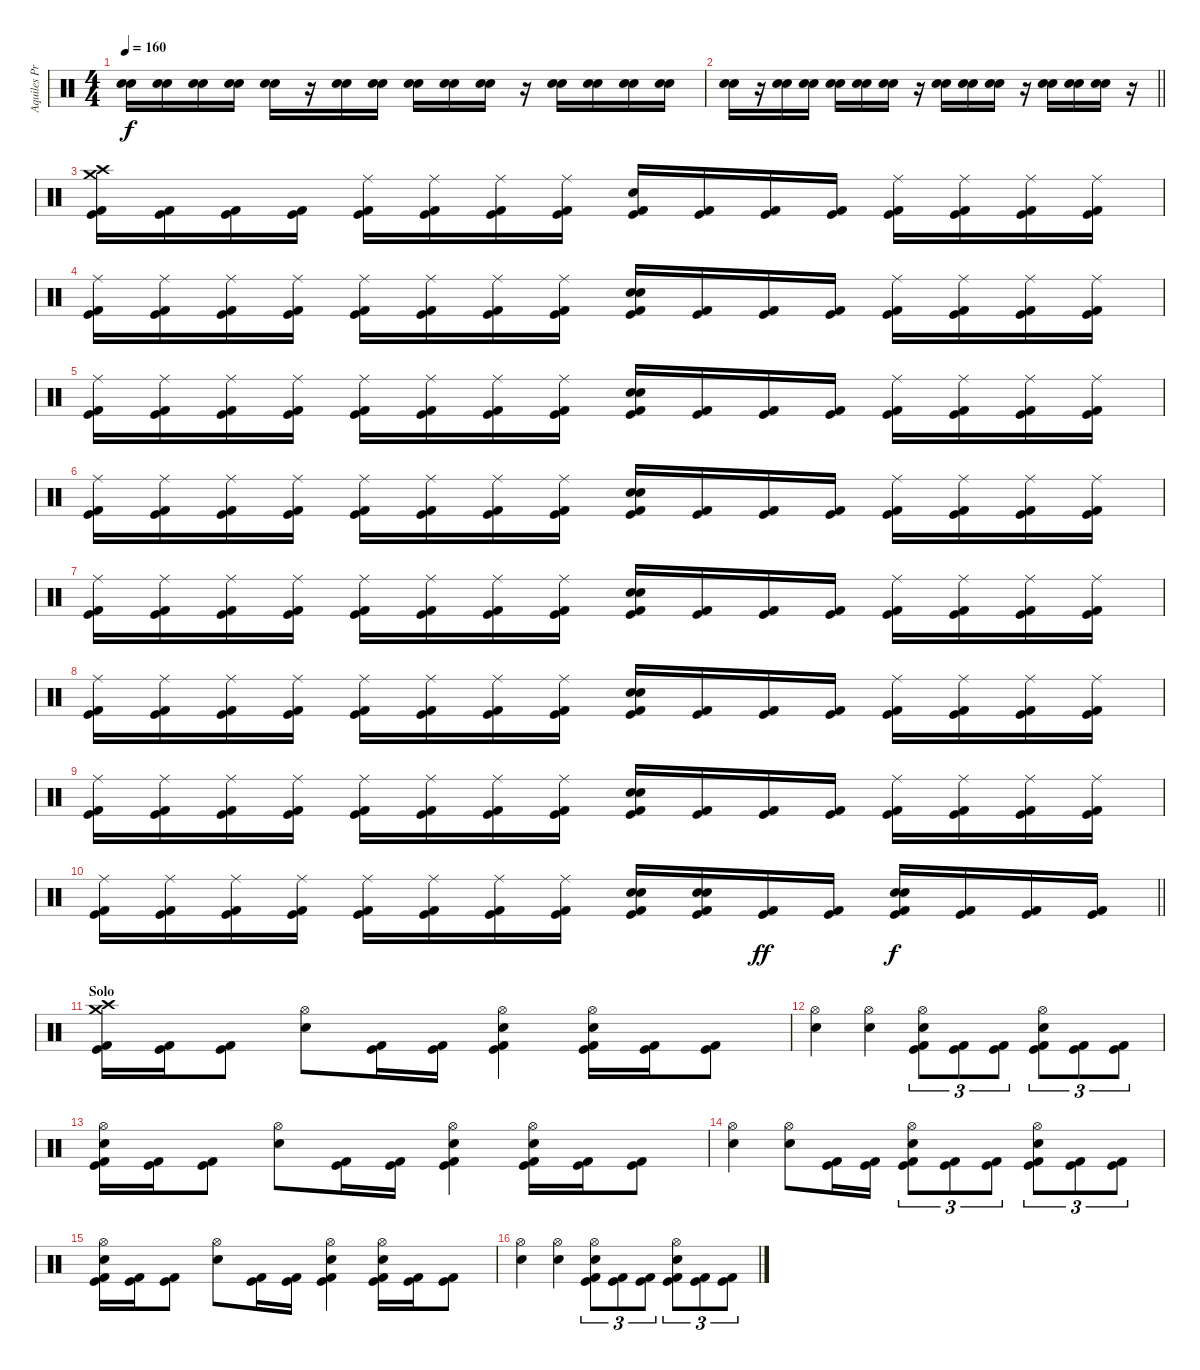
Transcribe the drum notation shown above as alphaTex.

\track ("Aquiles Priester" "Aquiles Pr") {instrument percussion}
\staff {score}
\articulation defaults
\ts (4 4)
\tempo 160
\clef neutral
\ks c
("Snare (hit) 2" "Electric Snare (hit)").16{dy f} ("Snare (hit) 2" "Electric Snare (hit)").16 ("Snare (hit) 2" "Electric Snare (hit)").16 ("Snare (hit) 2" "Electric Snare (hit)").16 ("Snare (hit) 2" "Electric Snare (hit)").16 r.16 ("Snare (hit) 2" "Electric Snare (hit)").16 ("Snare (hit) 2" "Electric Snare (hit)").16 ("Snare (hit) 2" "Electric Snare (hit)").16 ("Snare (hit) 2" "Electric Snare (hit)").16 ("Snare (hit) 2" "Electric Snare (hit)").16 r.16 ("Snare (hit) 2" "Electric Snare (hit)").16 ("Snare (hit) 2" "Electric Snare (hit)").16 ("Snare (hit) 2" "Electric Snare (hit)").16 ("Snare (hit) 2" "Electric Snare (hit)").16 |
\barLineRight lightlight
("Snare (hit) 2" "Electric Snare (hit)").16 r.16 ("Snare (hit) 2" "Electric Snare (hit)").16 ("Snare (hit) 2" "Electric Snare (hit)").16 ("Snare (hit) 2" "Electric Snare (hit)").16 ("Snare (hit) 2" "Electric Snare (hit)").16 ("Snare (hit) 2" "Electric Snare (hit)").16 r.16 ("Snare (hit) 2" "Electric Snare (hit)").16 ("Snare (hit) 2" "Electric Snare (hit)").16 ("Snare (hit) 2" "Electric Snare (hit)").16 r.16 ("Snare (hit) 2" "Electric Snare (hit)").16 ("Snare (hit) 2" "Electric Snare (hit)").16 ("Snare (hit) 2" "Electric Snare (hit)").16 r.16 |
("Crash medium (hit)" "Crash high (hit)" "Kick (hit) 2" "Kick (hit)").16 ("Kick (hit) 2" "Kick (hit)").16 ("Kick (hit) 2" "Kick (hit)").16 ("Kick (hit) 2" "Kick (hit)").16 ("Ride (middle)" "Kick (hit) 2" "Kick (hit)").16 ("Ride (middle)" "Kick (hit) 2" "Kick (hit)").16 ("Ride (middle)" "Kick (hit) 2" "Kick (hit)").16 ("Ride (middle)" "Kick (hit) 2" "Kick (hit)").16 ("Electric Snare (hit)" "Kick (hit) 2" "Kick (hit)").16 ("Kick (hit) 2" "Kick (hit)").16 ("Kick (hit) 2" "Kick (hit)").16 ("Kick (hit) 2" "Kick (hit)").16 ("Ride (middle)" "Kick (hit) 2" "Kick (hit)").16 ("Ride (middle)" "Kick (hit) 2" "Kick (hit)").16 ("Ride (middle)" "Kick (hit) 2" "Kick (hit)").16 ("Ride (middle)" "Kick (hit) 2" "Kick (hit)").16 |
("Ride (middle)" "Kick (hit) 2" "Kick (hit)").16 ("Ride (middle)" "Kick (hit) 2" "Kick (hit)").16 ("Ride (middle)" "Kick (hit) 2" "Kick (hit)").16 ("Ride (middle)" "Kick (hit) 2" "Kick (hit)").16 ("Ride (middle)" "Kick (hit) 2" "Kick (hit)").16 ("Ride (middle)" "Kick (hit) 2" "Kick (hit)").16 ("Ride (middle)" "Kick (hit) 2" "Kick (hit)").16 ("Ride (middle)" "Kick (hit) 2" "Kick (hit)").16 ("Electric Snare (hit)" "Electric Snare (hit)" "Kick (hit) 2" "Kick (hit)").16 ("Kick (hit) 2" "Kick (hit)").16 ("Kick (hit) 2" "Kick (hit)").16 ("Kick (hit) 2" "Kick (hit)").16 ("Ride (middle)" "Kick (hit) 2" "Kick (hit)").16 ("Ride (middle)" "Kick (hit) 2" "Kick (hit)").16 ("Ride (middle)" "Kick (hit) 2" "Kick (hit)").16 ("Ride (middle)" "Kick (hit) 2" "Kick (hit)").16 |
("Ride (middle)" "Kick (hit) 2" "Kick (hit)").16 ("Ride (middle)" "Kick (hit) 2" "Kick (hit)").16 ("Ride (middle)" "Kick (hit) 2" "Kick (hit)").16 ("Ride (middle)" "Kick (hit) 2" "Kick (hit)").16 ("Ride (middle)" "Kick (hit) 2" "Kick (hit)").16 ("Ride (middle)" "Kick (hit) 2" "Kick (hit)").16 ("Ride (middle)" "Kick (hit) 2" "Kick (hit)").16 ("Ride (middle)" "Kick (hit) 2" "Kick (hit)").16 ("Electric Snare (hit)" "Electric Snare (hit)" "Kick (hit) 2" "Kick (hit)").16 ("Kick (hit) 2" "Kick (hit)").16 ("Kick (hit) 2" "Kick (hit)").16 ("Kick (hit) 2" "Kick (hit)").16 ("Ride (middle)" "Kick (hit) 2" "Kick (hit)").16 ("Ride (middle)" "Kick (hit) 2" "Kick (hit)").16 ("Ride (middle)" "Kick (hit) 2" "Kick (hit)").16 ("Ride (middle)" "Kick (hit) 2" "Kick (hit)").16 |
("Ride (middle)" "Kick (hit) 2" "Kick (hit)").16 ("Ride (middle)" "Kick (hit) 2" "Kick (hit)").16 ("Ride (middle)" "Kick (hit) 2" "Kick (hit)").16 ("Ride (middle)" "Kick (hit) 2" "Kick (hit)").16 ("Ride (middle)" "Kick (hit) 2" "Kick (hit)").16 ("Ride (middle)" "Kick (hit) 2" "Kick (hit)").16 ("Ride (middle)" "Kick (hit) 2" "Kick (hit)").16 ("Ride (middle)" "Kick (hit) 2" "Kick (hit)").16 ("Electric Snare (hit)" "Electric Snare (hit)" "Kick (hit) 2" "Kick (hit)").16 ("Kick (hit) 2" "Kick (hit)").16 ("Kick (hit) 2" "Kick (hit)").16 ("Kick (hit) 2" "Kick (hit)").16 ("Ride (middle)" "Kick (hit) 2" "Kick (hit)").16 ("Ride (middle)" "Kick (hit) 2" "Kick (hit)").16 ("Ride (middle)" "Kick (hit) 2" "Kick (hit)").16 ("Ride (middle)" "Kick (hit) 2" "Kick (hit)").16 |
("Ride (middle)" "Kick (hit) 2" "Kick (hit)").16 ("Ride (middle)" "Kick (hit) 2" "Kick (hit)").16 ("Ride (middle)" "Kick (hit) 2" "Kick (hit)").16 ("Ride (middle)" "Kick (hit) 2" "Kick (hit)").16 ("Ride (middle)" "Kick (hit) 2" "Kick (hit)").16 ("Ride (middle)" "Kick (hit) 2" "Kick (hit)").16 ("Ride (middle)" "Kick (hit) 2" "Kick (hit)").16 ("Ride (middle)" "Kick (hit) 2" "Kick (hit)").16 ("Electric Snare (hit)" "Electric Snare (hit)" "Kick (hit) 2" "Kick (hit)").16 ("Kick (hit) 2" "Kick (hit)").16 ("Kick (hit) 2" "Kick (hit)").16 ("Kick (hit) 2" "Kick (hit)").16 ("Ride (middle)" "Kick (hit) 2" "Kick (hit)").16 ("Ride (middle)" "Kick (hit) 2" "Kick (hit)").16 ("Ride (middle)" "Kick (hit) 2" "Kick (hit)").16 ("Ride (middle)" "Kick (hit) 2" "Kick (hit)").16 |
("Ride (middle)" "Kick (hit) 2" "Kick (hit)").16 ("Ride (middle)" "Kick (hit) 2" "Kick (hit)").16 ("Ride (middle)" "Kick (hit) 2" "Kick (hit)").16 ("Ride (middle)" "Kick (hit) 2" "Kick (hit)").16 ("Ride (middle)" "Kick (hit) 2" "Kick (hit)").16 ("Ride (middle)" "Kick (hit) 2" "Kick (hit)").16 ("Ride (middle)" "Kick (hit) 2" "Kick (hit)").16 ("Ride (middle)" "Kick (hit) 2" "Kick (hit)").16 ("Electric Snare (hit)" "Electric Snare (hit)" "Kick (hit) 2" "Kick (hit)").16 ("Kick (hit) 2" "Kick (hit)").16 ("Kick (hit) 2" "Kick (hit)").16 ("Kick (hit) 2" "Kick (hit)").16 ("Ride (middle)" "Kick (hit) 2" "Kick (hit)").16 ("Ride (middle)" "Kick (hit) 2" "Kick (hit)").16 ("Ride (middle)" "Kick (hit) 2" "Kick (hit)").16 ("Ride (middle)" "Kick (hit) 2" "Kick (hit)").16 |
("Ride (middle)" "Kick (hit) 2" "Kick (hit)").16 ("Ride (middle)" "Kick (hit) 2" "Kick (hit)").16 ("Ride (middle)" "Kick (hit) 2" "Kick (hit)").16 ("Ride (middle)" "Kick (hit) 2" "Kick (hit)").16 ("Ride (middle)" "Kick (hit) 2" "Kick (hit)").16 ("Ride (middle)" "Kick (hit) 2" "Kick (hit)").16 ("Ride (middle)" "Kick (hit) 2" "Kick (hit)").16 ("Ride (middle)" "Kick (hit) 2" "Kick (hit)").16 ("Electric Snare (hit)" "Electric Snare (hit)" "Kick (hit) 2" "Kick (hit)").16 ("Kick (hit) 2" "Kick (hit)").16 ("Kick (hit) 2" "Kick (hit)").16 ("Kick (hit) 2" "Kick (hit)").16 ("Ride (middle)" "Kick (hit) 2" "Kick (hit)").16 ("Ride (middle)" "Kick (hit) 2" "Kick (hit)").16 ("Ride (middle)" "Kick (hit) 2" "Kick (hit)").16 ("Ride (middle)" "Kick (hit) 2" "Kick (hit)").16 |
\barLineRight lightlight
("Ride (middle)" "Kick (hit) 2" "Kick (hit)").16 ("Ride (middle)" "Kick (hit) 2" "Kick (hit)").16 ("Ride (middle)" "Kick (hit) 2" "Kick (hit)").16 ("Ride (middle)" "Kick (hit) 2" "Kick (hit)").16 ("Ride (middle)" "Kick (hit) 2" "Kick (hit)").16 ("Ride (middle)" "Kick (hit) 2" "Kick (hit)").16 ("Ride (middle)" "Kick (hit) 2" "Kick (hit)").16 ("Ride (middle)" "Kick (hit) 2" "Kick (hit)").16 ("Electric Snare (hit)" "Electric Snare (hit)" "Kick (hit) 2" "Kick (hit)").16 ("Electric Snare (hit)" "Electric Snare (hit)" "Kick (hit) 2" "Kick (hit)").16 ("Kick (hit) 2" "Kick (hit)").16{dy ff} ("Kick (hit) 2" "Kick (hit)").16 ("Electric Snare (hit)" "Electric Snare (hit)" "Kick (hit) 2" "Kick (hit)").16{dy f} ("Kick (hit) 2" "Kick (hit)").16 ("Kick (hit) 2" "Kick (hit)").16 ("Kick (hit) 2" "Kick (hit)").16 |
\section ("" "Solo")
("Crash medium (hit)" "Crash high (hit)" "Kick (hit) 2" "Kick (hit)").16 ("Kick (hit) 2" "Kick (hit)").16 ("Kick (hit) 2" "Kick (hit)").8 ("Hi-Hat (open)" "Electric Snare (hit)").8 ("Kick (hit)" "Kick (hit) 2").16 ("Kick (hit)" "Kick (hit) 2").16 ("Hi-Hat (open)" "Electric Snare (hit)" "Kick (hit)" "Kick (hit) 2").4 ("Hi-Hat (open)" "Electric Snare (hit)" "Kick (hit)" "Kick (hit) 2").16 ("Kick (hit) 2" "Kick (hit)").16 ("Kick (hit)" "Kick (hit) 2").8 |
("Hi-Hat (open)" "Electric Snare (hit)").4 ("Hi-Hat (open)" "Electric Snare (hit)").4 ("Hi-Hat (open)" "Electric Snare (hit)" "Kick (hit) 2" "Kick (hit)").8{tu (3 2)} ("Kick (hit) 2" "Kick (hit)").8{tu (3 2)} ("Kick (hit) 2" "Kick (hit)").8{tu (3 2)} ("Hi-Hat (open)" "Electric Snare (hit)" "Kick (hit) 2" "Kick (hit)").8{tu (3 2)} ("Kick (hit) 2" "Kick (hit)").8{tu (3 2)} ("Kick (hit) 2" "Kick (hit)").8{tu (3 2)} |
("Hi-Hat (open)" "Electric Snare (hit)" "Kick (hit) 2" "Kick (hit)").16 ("Kick (hit) 2" "Kick (hit)").16 ("Kick (hit) 2" "Kick (hit)").8 ("Hi-Hat (open)" "Electric Snare (hit)").8 ("Kick (hit)" "Kick (hit) 2").16 ("Kick (hit)" "Kick (hit) 2").16 ("Hi-Hat (open)" "Electric Snare (hit)" "Kick (hit)" "Kick (hit) 2").4 ("Hi-Hat (open)" "Electric Snare (hit)" "Kick (hit)" "Kick (hit) 2").16 ("Kick (hit) 2" "Kick (hit)").16 ("Kick (hit)" "Kick (hit) 2").8 |
("Hi-Hat (open)" "Electric Snare (hit)").4 ("Hi-Hat (open)" "Electric Snare (hit)").8 ("Kick (hit) 2" "Kick (hit)").16 ("Kick (hit) 2" "Kick (hit)").16 ("Hi-Hat (open)" "Electric Snare (hit)" "Kick (hit) 2" "Kick (hit)").8{tu (3 2)} ("Kick (hit) 2" "Kick (hit)").8{tu (3 2)} ("Kick (hit) 2" "Kick (hit)").8{tu (3 2)} ("Hi-Hat (open)" "Electric Snare (hit)" "Kick (hit) 2" "Kick (hit)").8{tu (3 2)} ("Kick (hit) 2" "Kick (hit)").8{tu (3 2)} ("Kick (hit) 2" "Kick (hit)").8{tu (3 2)} |
("Hi-Hat (open)" "Electric Snare (hit)" "Kick (hit) 2" "Kick (hit)").16 ("Kick (hit) 2" "Kick (hit)").16 ("Kick (hit) 2" "Kick (hit)").8 ("Hi-Hat (open)" "Electric Snare (hit)").8 ("Kick (hit)" "Kick (hit) 2").16 ("Kick (hit)" "Kick (hit) 2").16 ("Hi-Hat (open)" "Electric Snare (hit)" "Kick (hit)" "Kick (hit) 2").4 ("Hi-Hat (open)" "Electric Snare (hit)" "Kick (hit)" "Kick (hit) 2").16 ("Kick (hit) 2" "Kick (hit)").16 ("Kick (hit)" "Kick (hit) 2").8 |
("Hi-Hat (open)" "Electric Snare (hit)").4 ("Hi-Hat (open)" "Electric Snare (hit)").4 ("Hi-Hat (open)" "Electric Snare (hit)" "Kick (hit) 2" "Kick (hit)").8{tu (3 2)} ("Kick (hit) 2" "Kick (hit)").8{tu (3 2)} ("Kick (hit) 2" "Kick (hit)").8{tu (3 2)} ("Hi-Hat (open)" "Electric Snare (hit)" "Kick (hit) 2" "Kick (hit)").8{tu (3 2)} ("Kick (hit) 2" "Kick (hit)").8{tu (3 2)} ("Kick (hit) 2" "Kick (hit)").8{tu (3 2)}
